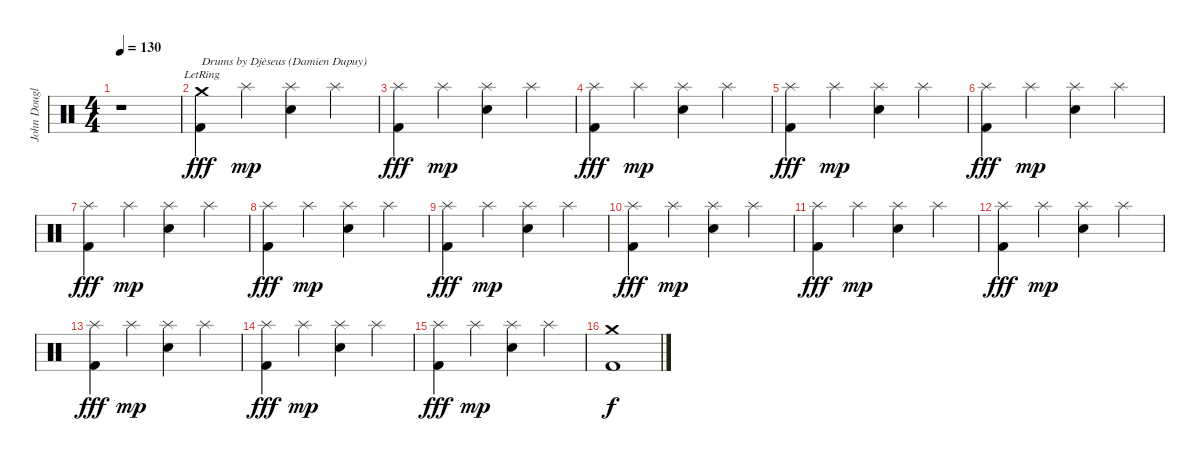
\track ("John Douglas (Drums)" "John Dougl") {instrument percussion}
\staff {score}
\articulation defaults
\ts (4 4)
\tempo 130
\clef neutral
\ks c
r.1{dy fff} |
("Crash medium (hit)"{lr} "Kick (hit) 2").4{txt "Drums by Djèseus (Damien Dupuy)"} "Splash (hit)".4{dy mp} ("Splash (hit)" "Snare (hit) 2").4 "Splash (hit)".4 |
("Splash (hit)" "Kick (hit) 2").4{dy fff} "Splash (hit)".4{dy mp} ("Splash (hit)" "Snare (hit) 2").4 "Splash (hit)".4 |
("Splash (hit)" "Kick (hit) 2").4{dy fff} "Splash (hit)".4{dy mp} ("Splash (hit)" "Snare (hit) 2").4 "Splash (hit)".4 |
("Splash (hit)" "Kick (hit) 2").4{dy fff} "Splash (hit)".4{dy mp} ("Splash (hit)" "Snare (hit) 2").4 "Splash (hit)".4 |
("Splash (hit)" "Kick (hit) 2").4{dy fff} "Splash (hit)".4{dy mp} ("Splash (hit)" "Snare (hit) 2").4 "Splash (hit)".4 |
("Splash (hit)" "Kick (hit) 2").4{dy fff} "Splash (hit)".4{dy mp} ("Splash (hit)" "Snare (hit) 2").4 "Splash (hit)".4 |
("Splash (hit)" "Kick (hit) 2").4{dy fff} "Splash (hit)".4{dy mp} ("Splash (hit)" "Snare (hit) 2").4 "Splash (hit)".4 |
("Splash (hit)" "Kick (hit) 2").4{dy fff} "Splash (hit)".4{dy mp} ("Splash (hit)" "Snare (hit) 2").4 "Splash (hit)".4 |
("Splash (hit)" "Kick (hit) 2").4{dy fff} "Splash (hit)".4{dy mp} ("Splash (hit)" "Snare (hit) 2").4 "Splash (hit)".4 |
("Splash (hit)" "Kick (hit) 2").4{dy fff} "Splash (hit)".4{dy mp} ("Splash (hit)" "Snare (hit) 2").4 "Splash (hit)".4 |
("Splash (hit)" "Kick (hit) 2").4{dy fff} "Splash (hit)".4{dy mp} ("Splash (hit)" "Snare (hit) 2").4 "Splash (hit)".4 |
("Splash (hit)" "Kick (hit) 2").4{dy fff} "Splash (hit)".4{dy mp} ("Splash (hit)" "Snare (hit) 2").4 "Splash (hit)".4 |
("Splash (hit)" "Kick (hit) 2").4{dy fff} "Splash (hit)".4{dy mp} ("Splash (hit)" "Snare (hit) 2").4 "Splash (hit)".4 |
("Splash (hit)" "Kick (hit) 2").4{dy fff} "Splash (hit)".4{dy mp} ("Splash (hit)" "Snare (hit) 2").4 "Splash (hit)".4 |
("Crash medium (hit)" "Kick (hit) 2").1{dy f}
